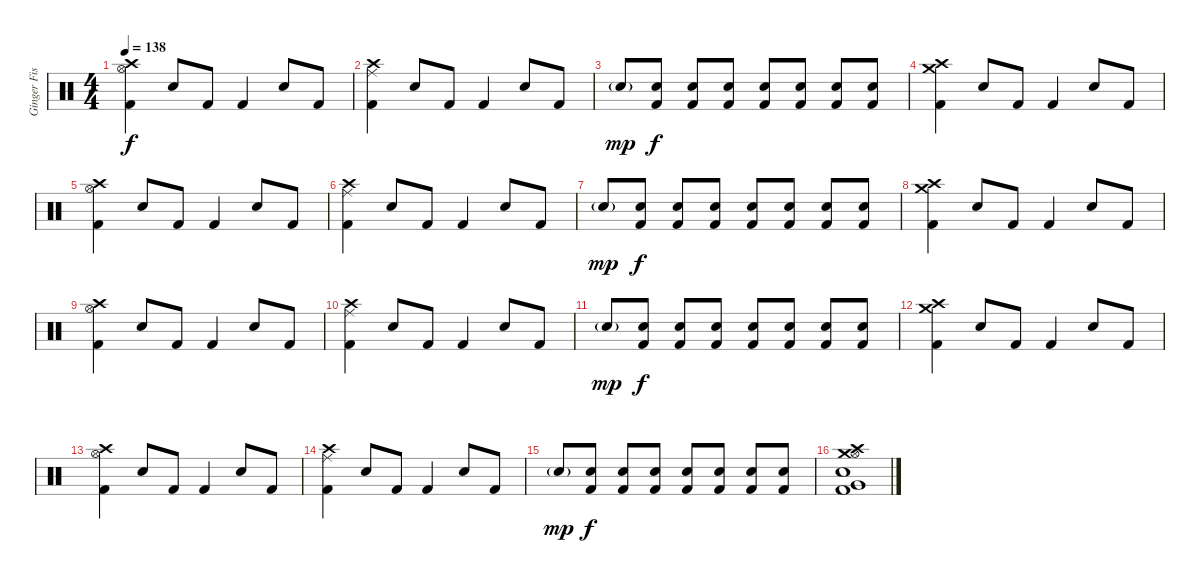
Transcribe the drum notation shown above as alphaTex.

\track ("Ginger Fish [Drums]" "Ginger Fis") {instrument percussion}
\staff {score}
\articulation defaults
\ts (4 4)
\tempo 138
\clef neutral
\ks c
("Kick (hit) 2" "Crash high (hit)" "Hi-Hat (open)").4{dy f} "Snare (hit) 2".8 "Kick (hit) 2".8 "Kick (hit) 2".4 "Snare (hit) 2".8 "Kick (hit) 2".8 |
("Kick (hit) 2" "Crash high (hit)" "Ride (middle)").4 "Snare (hit) 2".8 "Kick (hit) 2".8 "Kick (hit) 2".4 "Snare (hit) 2".8 "Kick (hit) 2".8 |
"Snare (hit) 2"{g}.8{dy mp} ("Snare (hit) 2" "Kick (hit) 2").8{dy f} ("Snare (hit) 2" "Kick (hit) 2").8 ("Snare (hit) 2" "Kick (hit) 2").8 ("Snare (hit) 2" "Kick (hit) 2").8 ("Snare (hit) 2" "Kick (hit) 2").8 ("Snare (hit) 2" "Kick (hit) 2").8 ("Snare (hit) 2" "Kick (hit) 2").8 |
("Kick (hit) 2" "Crash high (hit)" "Crash medium (hit)").4 "Snare (hit) 2".8 "Kick (hit) 2".8 "Kick (hit) 2".4 "Snare (hit) 2".8 "Kick (hit) 2".8 |
("Kick (hit) 2" "Crash high (hit)" "Hi-Hat (open)").4 "Snare (hit) 2".8 "Kick (hit) 2".8 "Kick (hit) 2".4 "Snare (hit) 2".8 "Kick (hit) 2".8 |
("Kick (hit) 2" "Crash high (hit)" "Ride (middle)").4 "Snare (hit) 2".8 "Kick (hit) 2".8 "Kick (hit) 2".4 "Snare (hit) 2".8 "Kick (hit) 2".8 |
"Snare (hit) 2"{g}.8{dy mp} ("Snare (hit) 2" "Kick (hit) 2").8{dy f} ("Snare (hit) 2" "Kick (hit) 2").8 ("Snare (hit) 2" "Kick (hit) 2").8 ("Snare (hit) 2" "Kick (hit) 2").8 ("Snare (hit) 2" "Kick (hit) 2").8 ("Snare (hit) 2" "Kick (hit) 2").8 ("Snare (hit) 2" "Kick (hit) 2").8 |
("Kick (hit) 2" "Crash high (hit)" "Crash medium (hit)").4 "Snare (hit) 2".8 "Kick (hit) 2".8 "Kick (hit) 2".4 "Snare (hit) 2".8 "Kick (hit) 2".8 |
("Kick (hit) 2" "Crash high (hit)" "Hi-Hat (open)").4 "Snare (hit) 2".8 "Kick (hit) 2".8 "Kick (hit) 2".4 "Snare (hit) 2".8 "Kick (hit) 2".8 |
("Kick (hit) 2" "Crash high (hit)" "Ride (middle)").4 "Snare (hit) 2".8 "Kick (hit) 2".8 "Kick (hit) 2".4 "Snare (hit) 2".8 "Kick (hit) 2".8 |
"Snare (hit) 2"{g}.8{dy mp} ("Snare (hit) 2" "Kick (hit) 2").8{dy f} ("Snare (hit) 2" "Kick (hit) 2").8 ("Snare (hit) 2" "Kick (hit) 2").8 ("Snare (hit) 2" "Kick (hit) 2").8 ("Snare (hit) 2" "Kick (hit) 2").8 ("Snare (hit) 2" "Kick (hit) 2").8 ("Snare (hit) 2" "Kick (hit) 2").8 |
("Kick (hit) 2" "Crash high (hit)" "Crash medium (hit)").4 "Snare (hit) 2".8 "Kick (hit) 2".8 "Kick (hit) 2".4 "Snare (hit) 2".8 "Kick (hit) 2".8 |
("Kick (hit) 2" "Crash high (hit)" "Hi-Hat (open)").4 "Snare (hit) 2".8 "Kick (hit) 2".8 "Kick (hit) 2".4 "Snare (hit) 2".8 "Kick (hit) 2".8 |
("Kick (hit) 2" "Crash high (hit)" "Ride (middle)").4 "Snare (hit) 2".8 "Kick (hit) 2".8 "Kick (hit) 2".4 "Snare (hit) 2".8 "Kick (hit) 2".8 |
"Snare (hit) 2"{g}.8{dy mp} ("Snare (hit) 2" "Kick (hit) 2").8{dy f} ("Snare (hit) 2" "Kick (hit) 2").8 ("Snare (hit) 2" "Kick (hit) 2").8 ("Snare (hit) 2" "Kick (hit) 2").8 ("Snare (hit) 2" "Kick (hit) 2").8 ("Snare (hit) 2" "Kick (hit) 2").8 ("Snare (hit) 2" "Kick (hit) 2").8 |
("Kick (hit) 2" "Snare (hit) 2" "Very Low Tom (hit)" "Crash high (hit)" "Crash medium (hit)" "Hi-Hat (open)").1
